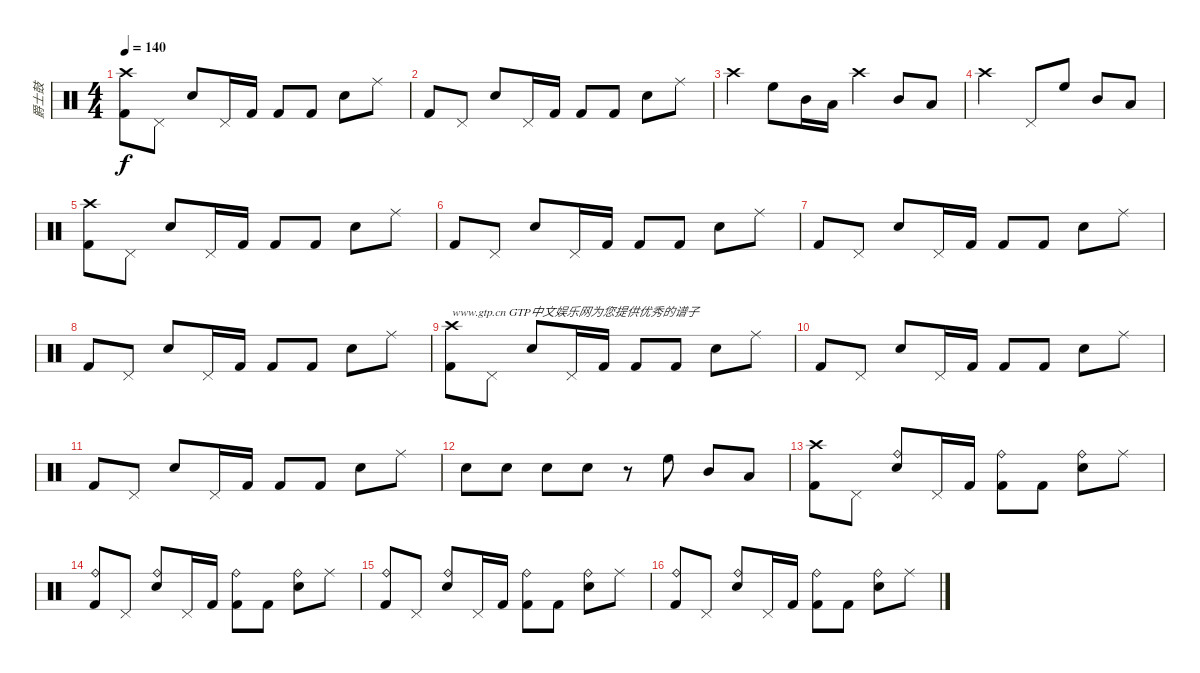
\track ("爵士鼓" "爵士鼓") {instrument percussion}
\staff {score}
\articulation defaults
\ts (4 4)
\tempo 140
\clef neutral
\ks c
("Crash high (hit)" "Kick (hit) 2").8{dy f} "Pedal Hi-Hat (hit)".8 "Snare (hit) 2".8 "Pedal Hi-Hat (hit)".16 "Kick (hit) 2".16 "Kick (hit) 2".8 "Kick (hit) 2".8 "Snare (hit) 2".8 "Ride (middle)".8 |
"Kick (hit) 2".8 "Pedal Hi-Hat (hit)".8 "Snare (hit) 2".8 "Pedal Hi-Hat (hit)".16 "Kick (hit) 2".16 "Kick (hit) 2".8 "Kick (hit) 2".8 "Snare (hit) 2".8 "Ride (middle)".8 |
"Crash high (hit)".4 "High Floor Tom (hit)".8 "Mid Tom (hit)".16 "Low Tom (hit)".16 "Crash high (hit)".4 "Mid Tom (hit)".8 "Low Tom (hit)".8 |
"Crash high (hit)".2 "Pedal Hi-Hat (hit)".8 "High Floor Tom (hit)".8 "Mid Tom (hit)".8 "Low Tom (hit)".8 |
("Crash high (hit)" "Kick (hit) 2").8 "Pedal Hi-Hat (hit)".8 "Snare (hit) 2".8 "Pedal Hi-Hat (hit)".16 "Kick (hit) 2".16 "Kick (hit) 2".8 "Kick (hit) 2".8 "Snare (hit) 2".8 "Ride (middle)".8 |
"Kick (hit) 2".8 "Pedal Hi-Hat (hit)".8 "Snare (hit) 2".8 "Pedal Hi-Hat (hit)".16 "Kick (hit) 2".16 "Kick (hit) 2".8 "Kick (hit) 2".8 "Snare (hit) 2".8 "Ride (middle)".8 |
"Kick (hit) 2".8 "Pedal Hi-Hat (hit)".8 "Snare (hit) 2".8 "Pedal Hi-Hat (hit)".16 "Kick (hit) 2".16 "Kick (hit) 2".8 "Kick (hit) 2".8 "Snare (hit) 2".8 "Ride (middle)".8 |
"Kick (hit) 2".8 "Pedal Hi-Hat (hit)".8 "Snare (hit) 2".8 "Pedal Hi-Hat (hit)".16 "Kick (hit) 2".16 "Kick (hit) 2".8 "Kick (hit) 2".8 "Snare (hit) 2".8 "Ride (middle)".8 |
("Crash high (hit)" "Kick (hit) 2").8{txt "www.gtp.cn GTP中文娱乐网为您提供优秀的谱子"} "Pedal Hi-Hat (hit)".8 "Snare (hit) 2".8 "Pedal Hi-Hat (hit)".16 "Kick (hit) 2".16 "Kick (hit) 2".8 "Kick (hit) 2".8 "Snare (hit) 2".8 "Ride (middle)".8 |
"Kick (hit) 2".8 "Pedal Hi-Hat (hit)".8 "Snare (hit) 2".8 "Pedal Hi-Hat (hit)".16 "Kick (hit) 2".16 "Kick (hit) 2".8 "Kick (hit) 2".8 "Snare (hit) 2".8 "Ride (middle)".8 |
"Kick (hit) 2".8 "Pedal Hi-Hat (hit)".8 "Snare (hit) 2".8 "Pedal Hi-Hat (hit)".16 "Kick (hit) 2".16 "Kick (hit) 2".8 "Kick (hit) 2".8 "Snare (hit) 2".8 "Ride (middle)".8 |
"Snare (hit) 2".8 "Snare (hit) 2".8 "Snare (hit) 2".8 "Snare (hit) 2".8 r.8 "High Floor Tom (hit)".8 "Mid Tom (hit)".8 "Low Tom (hit)".8 |
("Crash high (hit)" "Kick (hit) 2").8 "Pedal Hi-Hat (hit)".8 ("Ride (bell)" "Snare (hit) 2").8 "Pedal Hi-Hat (hit)".16 "Kick (hit) 2".16 ("Ride (bell)" "Kick (hit) 2").8 "Kick (hit) 2".8 ("Ride (bell)" "Snare (hit) 2").8 "Ride (middle)".8 |
("Ride (bell)" "Kick (hit) 2").8 "Pedal Hi-Hat (hit)".8 ("Ride (bell)" "Snare (hit) 2").8 "Pedal Hi-Hat (hit)".16 "Kick (hit) 2".16 ("Ride (bell)" "Kick (hit) 2").8 "Kick (hit) 2".8 ("Ride (bell)" "Snare (hit) 2").8 "Ride (middle)".8 |
("Ride (bell)" "Kick (hit) 2").8 "Pedal Hi-Hat (hit)".8 ("Ride (bell)" "Snare (hit) 2").8 "Pedal Hi-Hat (hit)".16 "Kick (hit) 2".16 ("Ride (bell)" "Kick (hit) 2").8 "Kick (hit) 2".8 ("Ride (bell)" "Snare (hit) 2").8 "Ride (middle)".8 |
("Ride (bell)" "Kick (hit) 2").8 "Pedal Hi-Hat (hit)".8 ("Ride (bell)" "Snare (hit) 2").8 "Pedal Hi-Hat (hit)".16 "Kick (hit) 2".16 ("Ride (bell)" "Kick (hit) 2").8 "Kick (hit) 2".8 ("Ride (bell)" "Snare (hit) 2").8 "Ride (middle)".8
